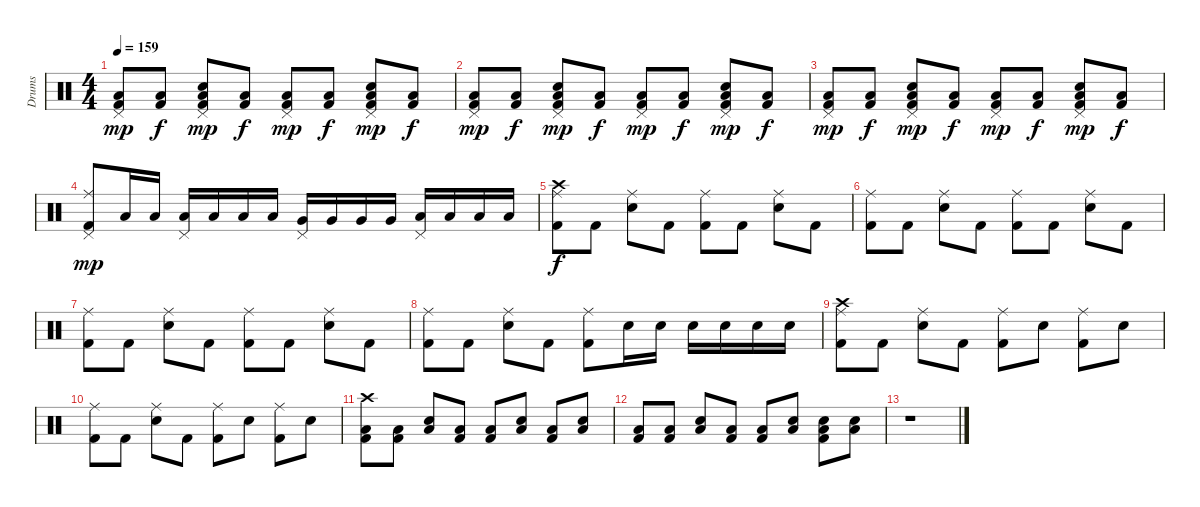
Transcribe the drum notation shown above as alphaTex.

\track ("Drums" "Drums") {instrument percussion}
\staff {score}
\articulation defaults
\ts (4 4)
\tempo 159
\clef neutral
\ks c
("Pedal Hi-Hat (hit)" "Low Floor Tom (hit)" "Kick (hit) 2").8{dy mp} ("Low Floor Tom (hit)" "Kick (hit) 2").8{dy f} ("Pedal Hi-Hat (hit)" "Electric Snare (hit)" "Low Floor Tom (hit)" "Kick (hit) 2").8{dy mp} ("Low Floor Tom (hit)" "Kick (hit) 2").8{dy f} ("Pedal Hi-Hat (hit)" "Low Floor Tom (hit)" "Kick (hit) 2").8{dy mp} ("Low Floor Tom (hit)" "Kick (hit) 2").8{dy f} ("Pedal Hi-Hat (hit)" "Electric Snare (hit)" "Low Floor Tom (hit)" "Kick (hit) 2").8{dy mp} ("Low Floor Tom (hit)" "Kick (hit) 2").8{dy f} |
("Pedal Hi-Hat (hit)" "Low Floor Tom (hit)" "Kick (hit) 2").8{dy mp} ("Low Floor Tom (hit)" "Kick (hit) 2").8{dy f} ("Pedal Hi-Hat (hit)" "Electric Snare (hit)" "Low Floor Tom (hit)" "Kick (hit) 2").8{dy mp} ("Low Floor Tom (hit)" "Kick (hit) 2").8{dy f} ("Pedal Hi-Hat (hit)" "Low Floor Tom (hit)" "Kick (hit) 2").8{dy mp} ("Low Floor Tom (hit)" "Kick (hit) 2").8{dy f} ("Pedal Hi-Hat (hit)" "Electric Snare (hit)" "Low Floor Tom (hit)" "Kick (hit) 2").8{dy mp} ("Low Floor Tom (hit)" "Kick (hit) 2").8{dy f} |
("Pedal Hi-Hat (hit)" "Low Floor Tom (hit)" "Kick (hit) 2").8{dy mp} ("Low Floor Tom (hit)" "Kick (hit) 2").8{dy f} ("Pedal Hi-Hat (hit)" "Electric Snare (hit)" "Low Floor Tom (hit)" "Kick (hit) 2").8{dy mp} ("Low Floor Tom (hit)" "Kick (hit) 2").8{dy f} ("Pedal Hi-Hat (hit)" "Low Floor Tom (hit)" "Kick (hit) 2").8{dy mp} ("Low Floor Tom (hit)" "Kick (hit) 2").8{dy f} ("Pedal Hi-Hat (hit)" "Electric Snare (hit)" "Low Floor Tom (hit)" "Kick (hit) 2").8{dy mp} ("Low Floor Tom (hit)" "Kick (hit) 2").8{dy f} |
("Pedal Hi-Hat (hit)" "Ride (middle)" "Kick (hit) 2").8{dy mp} "Low Tom (hit)".16 "Low Tom (hit)".16 ("Pedal Hi-Hat (hit)" "Low Tom (hit)").16 "Low Tom (hit)".16 "Low Tom (hit)".16 "Low Tom (hit)".16 ("Pedal Hi-Hat (hit)" "Very Low Tom (hit)").16 "Very Low Tom (hit)".16 "Very Low Tom (hit)".16 "Very Low Tom (hit)".16 ("Pedal Hi-Hat (hit)" "Low Floor Tom (hit)").16 "Low Floor Tom (hit)".16 "Low Floor Tom (hit)".16 "Low Floor Tom (hit)".16 |
("Ride (middle)" "Crash high (hit)" "Kick (hit) 2").8{dy f} "Kick (hit) 2".8 ("Ride (middle)" "Electric Snare (hit)").8 "Kick (hit) 2".8 ("Ride (middle)" "Kick (hit) 2").8 "Kick (hit) 2".8 ("Ride (middle)" "Electric Snare (hit)").8 "Kick (hit) 2".8 |
("Ride (middle)" "Kick (hit) 2").8 "Kick (hit) 2".8 ("Ride (middle)" "Electric Snare (hit)").8 "Kick (hit) 2".8 ("Ride (middle)" "Kick (hit) 2").8 "Kick (hit) 2".8 ("Ride (middle)" "Electric Snare (hit)").8 "Kick (hit) 2".8 |
("Ride (middle)" "Kick (hit) 2").8 "Kick (hit) 2".8 ("Ride (middle)" "Electric Snare (hit)").8 "Kick (hit) 2".8 ("Ride (middle)" "Kick (hit) 2").8 "Kick (hit) 2".8 ("Ride (middle)" "Electric Snare (hit)").8 "Kick (hit) 2".8 |
("Ride (middle)" "Kick (hit) 2").8 "Kick (hit) 2".8 ("Ride (middle)" "Electric Snare (hit)").8 "Kick (hit) 2".8 ("Ride (middle)" "Kick (hit) 2").8 "Electric Snare (hit)".16 "Electric Snare (hit)".16 "Electric Snare (hit)".16 "Electric Snare (hit)".16 "Electric Snare (hit)".16 "Electric Snare (hit)".16 |
("Ride (middle)" "Crash high (hit)" "Kick (hit) 2").8 "Kick (hit) 2".8 ("Ride (middle)" "Electric Snare (hit)").8 "Kick (hit) 2".8 ("Ride (middle)" "Kick (hit) 2").8 "Electric Snare (hit)".8 ("Ride (middle)" "Kick (hit) 2").8 "Electric Snare (hit)".8 |
("Ride (middle)" "Kick (hit) 2").8 "Kick (hit) 2".8 ("Ride (middle)" "Electric Snare (hit)").8 "Kick (hit) 2".8 ("Ride (middle)" "Kick (hit) 2").8 "Electric Snare (hit)".8 ("Ride (middle)" "Kick (hit) 2").8 "Electric Snare (hit)".8 |
("Crash high (hit)" "Low Floor Tom (hit)" "Kick (hit) 2").8 ("Low Floor Tom (hit)" "Kick (hit) 2").8 ("Electric Snare (hit)" "Low Floor Tom (hit)").8 ("Low Floor Tom (hit)" "Kick (hit) 2").8 ("Low Floor Tom (hit)" "Kick (hit) 2").8 ("Electric Snare (hit)" "Low Floor Tom (hit)").8 ("Low Floor Tom (hit)" "Kick (hit) 2").8 ("Electric Snare (hit)" "Low Floor Tom (hit)").8 |
("Low Floor Tom (hit)" "Kick (hit) 2").8 ("Low Floor Tom (hit)" "Kick (hit) 2").8 ("Electric Snare (hit)" "Low Floor Tom (hit)").8 ("Low Floor Tom (hit)" "Kick (hit) 2").8 ("Low Floor Tom (hit)" "Kick (hit) 2").8 ("Electric Snare (hit)" "Low Floor Tom (hit)").8 ("Electric Snare (hit)" "Low Floor Tom (hit)" "Kick (hit) 2").8 ("Electric Snare (hit)" "Low Floor Tom (hit)").8 |
r.1
